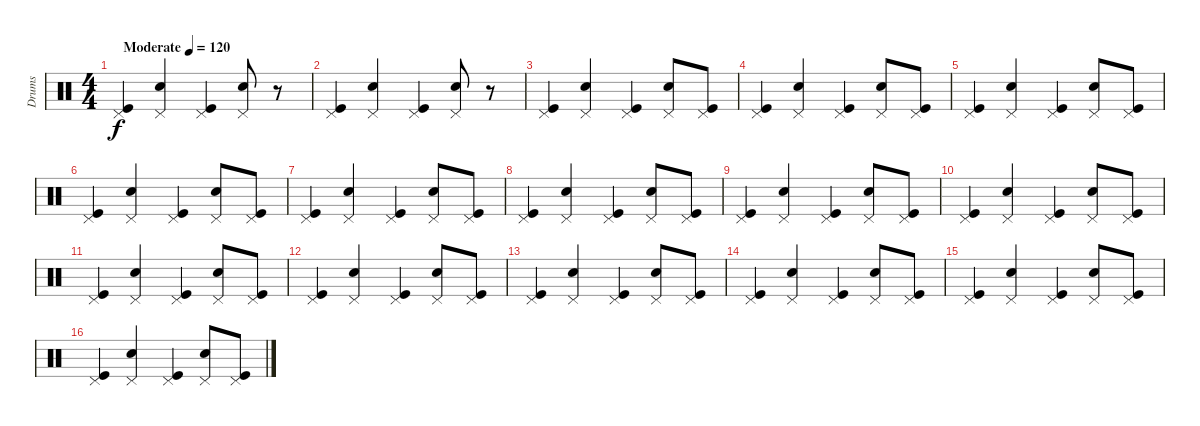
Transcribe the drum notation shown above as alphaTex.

\track ("Drums" "Drums") {instrument percussion}
\staff {score}
\articulation defaults
\ts (4 4)
\tempo (120 "Moderate")
\clef neutral
\ks c
("Pedal Hi-Hat (hit)" "Kick (hit)").4{dy f} ("Pedal Hi-Hat (hit)" "Electric Snare (hit)").4 ("Pedal Hi-Hat (hit)" "Kick (hit)").4 ("Pedal Hi-Hat (hit)" "Electric Snare (hit)").8 r.8 |
("Pedal Hi-Hat (hit)" "Kick (hit)").4 ("Pedal Hi-Hat (hit)" "Electric Snare (hit)").4 ("Pedal Hi-Hat (hit)" "Kick (hit)").4 ("Pedal Hi-Hat (hit)" "Electric Snare (hit)").8 r.8 |
("Pedal Hi-Hat (hit)" "Kick (hit)").4 ("Pedal Hi-Hat (hit)" "Electric Snare (hit)").4 ("Pedal Hi-Hat (hit)" "Kick (hit)").4 ("Electric Snare (hit)" "Pedal Hi-Hat (hit)").8 ("Kick (hit)" "Pedal Hi-Hat (hit)").8 |
("Pedal Hi-Hat (hit)" "Kick (hit)").4 ("Pedal Hi-Hat (hit)" "Electric Snare (hit)").4 ("Pedal Hi-Hat (hit)" "Kick (hit)").4 ("Electric Snare (hit)" "Pedal Hi-Hat (hit)").8 ("Kick (hit)" "Pedal Hi-Hat (hit)").8 |
("Pedal Hi-Hat (hit)" "Kick (hit)").4 ("Pedal Hi-Hat (hit)" "Electric Snare (hit)").4 ("Pedal Hi-Hat (hit)" "Kick (hit)").4 ("Pedal Hi-Hat (hit)" "Electric Snare (hit)").8 ("Pedal Hi-Hat (hit)" "Kick (hit)").8 |
("Pedal Hi-Hat (hit)" "Kick (hit)").4 ("Pedal Hi-Hat (hit)" "Electric Snare (hit)").4 ("Pedal Hi-Hat (hit)" "Kick (hit)").4 ("Pedal Hi-Hat (hit)" "Electric Snare (hit)").8 ("Pedal Hi-Hat (hit)" "Kick (hit)").8 |
("Pedal Hi-Hat (hit)" "Kick (hit)").4 ("Pedal Hi-Hat (hit)" "Electric Snare (hit)").4 ("Pedal Hi-Hat (hit)" "Kick (hit)").4 ("Pedal Hi-Hat (hit)" "Electric Snare (hit)").8 ("Pedal Hi-Hat (hit)" "Kick (hit)").8 |
("Pedal Hi-Hat (hit)" "Kick (hit)").4 ("Pedal Hi-Hat (hit)" "Electric Snare (hit)").4 ("Pedal Hi-Hat (hit)" "Kick (hit)").4 ("Pedal Hi-Hat (hit)" "Electric Snare (hit)").8 ("Pedal Hi-Hat (hit)" "Kick (hit)").8 |
("Pedal Hi-Hat (hit)" "Kick (hit)").4 ("Pedal Hi-Hat (hit)" "Electric Snare (hit)").4 ("Pedal Hi-Hat (hit)" "Kick (hit)").4 ("Pedal Hi-Hat (hit)" "Electric Snare (hit)").8 ("Pedal Hi-Hat (hit)" "Kick (hit)").8 |
("Pedal Hi-Hat (hit)" "Kick (hit)").4 ("Pedal Hi-Hat (hit)" "Electric Snare (hit)").4 ("Pedal Hi-Hat (hit)" "Kick (hit)").4 ("Pedal Hi-Hat (hit)" "Electric Snare (hit)").8 ("Pedal Hi-Hat (hit)" "Kick (hit)").8 |
("Pedal Hi-Hat (hit)" "Kick (hit)").4 ("Pedal Hi-Hat (hit)" "Electric Snare (hit)").4 ("Pedal Hi-Hat (hit)" "Kick (hit)").4 ("Pedal Hi-Hat (hit)" "Electric Snare (hit)").8 ("Pedal Hi-Hat (hit)" "Kick (hit)").8 |
("Pedal Hi-Hat (hit)" "Kick (hit)").4 ("Pedal Hi-Hat (hit)" "Electric Snare (hit)").4 ("Pedal Hi-Hat (hit)" "Kick (hit)").4 ("Pedal Hi-Hat (hit)" "Electric Snare (hit)").8 ("Pedal Hi-Hat (hit)" "Kick (hit)").8 |
("Pedal Hi-Hat (hit)" "Kick (hit)").4 ("Pedal Hi-Hat (hit)" "Electric Snare (hit)").4 ("Pedal Hi-Hat (hit)" "Kick (hit)").4 ("Pedal Hi-Hat (hit)" "Electric Snare (hit)").8 ("Pedal Hi-Hat (hit)" "Kick (hit)").8 |
("Pedal Hi-Hat (hit)" "Kick (hit)").4 ("Pedal Hi-Hat (hit)" "Electric Snare (hit)").4 ("Pedal Hi-Hat (hit)" "Kick (hit)").4 ("Pedal Hi-Hat (hit)" "Electric Snare (hit)").8 ("Pedal Hi-Hat (hit)" "Kick (hit)").8 |
("Pedal Hi-Hat (hit)" "Kick (hit)").4 ("Pedal Hi-Hat (hit)" "Electric Snare (hit)").4 ("Pedal Hi-Hat (hit)" "Kick (hit)").4 ("Pedal Hi-Hat (hit)" "Electric Snare (hit)").8 ("Pedal Hi-Hat (hit)" "Kick (hit)").8 |
("Pedal Hi-Hat (hit)" "Kick (hit)").4 ("Pedal Hi-Hat (hit)" "Electric Snare (hit)").4 ("Pedal Hi-Hat (hit)" "Kick (hit)").4 ("Pedal Hi-Hat (hit)" "Electric Snare (hit)").8 ("Pedal Hi-Hat (hit)" "Kick (hit)").8
